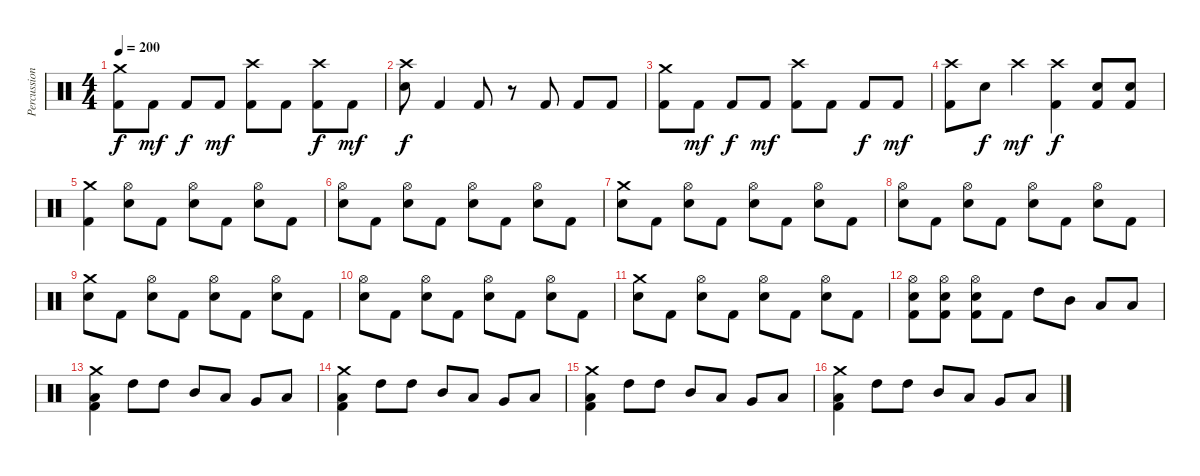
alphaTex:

\track ("Percussions" "Percussion") {instrument percussion}
\staff {score}
\articulation defaults
\ts (4 4)
\tempo 200
\clef neutral
\ks c
("Crash medium (hit)" "Kick (hit) 2").8{dy f} "Kick (hit) 2".8{dy mf} "Kick (hit) 2".8{dy f} "Kick (hit) 2".8{dy mf} ("Crash high (hit)" "Kick (hit) 2").8 "Kick (hit) 2".8 ("Crash high (hit)" "Kick (hit) 2").8{dy f} "Kick (hit) 2".8{dy mf} |
("Crash high (hit)" "Electric Snare (hit)").8{dy f} "Kick (hit) 2".4 "Kick (hit) 2".8 r.8 "Kick (hit) 2".8 "Kick (hit) 2".8 "Kick (hit) 2".8 |
("Crash medium (hit)" "Kick (hit) 2").8 "Kick (hit) 2".8{dy mf} "Kick (hit) 2".8{dy f} "Kick (hit) 2".8{dy mf} ("Crash high (hit)" "Kick (hit) 2").8 "Kick (hit) 2".8 "Kick (hit) 2".8{dy f} "Kick (hit) 2".8{dy mf} |
("Crash high (hit)" "Kick (hit) 2").8 "Electric Snare (hit)".8{dy f} "Crash high (hit)".4{dy mf} ("Crash high (hit)" "Kick (hit) 2").4{dy f} ("Electric Snare (hit)" "Kick (hit) 2").8 ("Electric Snare (hit)" "Kick (hit) 2").8 |
("Crash medium (hit)" "Kick (hit) 2").4 ("Hi-Hat (open)" "Electric Snare (hit)").8 "Kick (hit) 2".8 ("Hi-Hat (open)" "Electric Snare (hit)").8 "Kick (hit) 2".8 ("Hi-Hat (open)" "Electric Snare (hit)").8 "Kick (hit) 2".8 |
("Hi-Hat (open)" "Electric Snare (hit)").8 "Kick (hit) 2".8 ("Hi-Hat (open)" "Electric Snare (hit)").8 "Kick (hit) 2".8 ("Hi-Hat (open)" "Electric Snare (hit)").8 "Kick (hit) 2".8 ("Hi-Hat (open)" "Electric Snare (hit)").8 "Kick (hit) 2".8 |
("Crash medium (hit)" "Electric Snare (hit)").8 "Kick (hit) 2".8 ("Hi-Hat (open)" "Electric Snare (hit)").8 "Kick (hit) 2".8 ("Hi-Hat (open)" "Electric Snare (hit)").8 "Kick (hit) 2".8 ("Hi-Hat (open)" "Electric Snare (hit)").8 "Kick (hit) 2".8 |
("Hi-Hat (open)" "Electric Snare (hit)").8 "Kick (hit) 2".8 ("Hi-Hat (open)" "Electric Snare (hit)").8 "Kick (hit) 2".8 ("Hi-Hat (open)" "Electric Snare (hit)").8 "Kick (hit) 2".8 ("Hi-Hat (open)" "Electric Snare (hit)").8 "Kick (hit) 2".8 |
("Crash medium (hit)" "Electric Snare (hit)").8 "Kick (hit) 2".8 ("Hi-Hat (open)" "Electric Snare (hit)").8 "Kick (hit) 2".8 ("Hi-Hat (open)" "Electric Snare (hit)").8 "Kick (hit) 2".8 ("Hi-Hat (open)" "Electric Snare (hit)").8 "Kick (hit) 2".8 |
("Hi-Hat (open)" "Electric Snare (hit)").8 "Kick (hit) 2".8 ("Hi-Hat (open)" "Electric Snare (hit)").8 "Kick (hit) 2".8 ("Hi-Hat (open)" "Electric Snare (hit)").8 "Kick (hit) 2".8 ("Hi-Hat (open)" "Electric Snare (hit)").8 "Kick (hit) 2".8 |
("Crash medium (hit)" "Electric Snare (hit)").8 "Kick (hit) 2".8 ("Hi-Hat (open)" "Electric Snare (hit)").8 "Kick (hit) 2".8 ("Hi-Hat (open)" "Electric Snare (hit)").8 "Kick (hit) 2".8 ("Hi-Hat (open)" "Electric Snare (hit)").8 "Kick (hit) 2".8 |
("Hi-Hat (open)" "Electric Snare (hit)" "Kick (hit) 2").8 ("Hi-Hat (open)" "Electric Snare (hit)" "Kick (hit) 2").8 ("Hi-Hat (open)" "Electric Snare (hit)" "Kick (hit) 2").8 "Kick (hit) 2".8 "High Tom (hit)".8 "Mid Tom (hit)".8 "Low Tom (hit)".8 "Low Floor Tom (hit)".8 |
("Crash medium (hit)" "Low Floor Tom (hit)" "Kick (hit) 2").4 "High Tom (hit)".8 "High Tom (hit)".8 "Mid Tom (hit)".8 "Low Tom (hit)".8 "Very Low Tom (hit)".8 "Low Floor Tom (hit)".8 |
("Crash medium (hit)" "Low Floor Tom (hit)" "Kick (hit) 2").4 "High Tom (hit)".8 "High Tom (hit)".8 "Mid Tom (hit)".8 "Low Tom (hit)".8 "Very Low Tom (hit)".8 "Low Floor Tom (hit)".8 |
("Crash medium (hit)" "Low Floor Tom (hit)" "Kick (hit) 2").4 "High Tom (hit)".8 "High Tom (hit)".8 "Mid Tom (hit)".8 "Low Tom (hit)".8 "Very Low Tom (hit)".8 "Low Floor Tom (hit)".8 |
("Crash medium (hit)" "Low Floor Tom (hit)" "Kick (hit) 2").4 "High Tom (hit)".8 "High Tom (hit)".8 "Mid Tom (hit)".8 "Low Tom (hit)".8 "Very Low Tom (hit)".8 "Low Floor Tom (hit)".8
